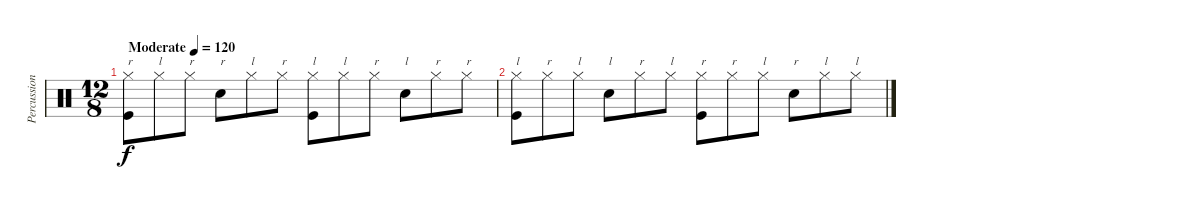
\track ("Percussion" "Percussion") {instrument percussion}
\staff {score}
\articulation defaults
\ts (12 8)
\tempo (120 "Moderate")
\clef neutral
\ks c
("Hi-Hat (closed)" "Kick (hit)").8{txt "r" dy f} "Hi-Hat (closed)".8{txt "l"} "Hi-Hat (closed)".8{txt "r"} "Snare (hit) 2".8{txt "r"} "Hi-Hat (closed)".8{txt "l"} "Hi-Hat (closed)".8{txt "r"} ("Hi-Hat (closed)" "Kick (hit)").8{txt "l"} "Hi-Hat (closed)".8{txt "l"} "Hi-Hat (closed)".8{txt "r"} "Snare (hit) 2".8{txt "l"} "Hi-Hat (closed)".8{txt "r"} "Hi-Hat (closed)".8{txt "r"} |
("Hi-Hat (closed)" "Kick (hit)").8{txt "l"} "Hi-Hat (closed)".8{txt "r"} "Hi-Hat (closed)".8{txt "l"} "Snare (hit) 2".8{txt "l"} "Hi-Hat (closed)".8{txt "r"} "Hi-Hat (closed)".8{txt "l"} ("Hi-Hat (closed)" "Kick (hit)").8{txt "r"} "Hi-Hat (closed)".8{txt "r"} "Hi-Hat (closed)".8{txt "l"} "Snare (hit) 2".8{txt "r"} "Hi-Hat (closed)".8{txt "l"} "Hi-Hat (closed)".8{txt "l"}
